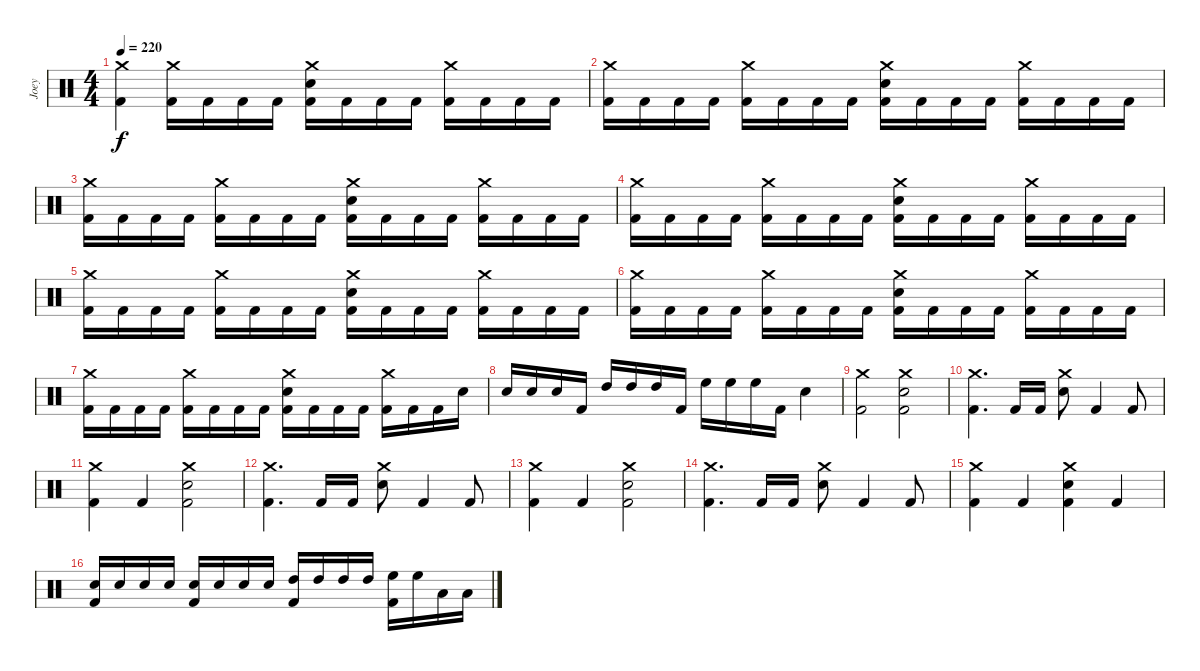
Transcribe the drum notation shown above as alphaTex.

\track ("Joey" "Joey") {instrument percussion}
\staff {score}
\articulation defaults
\ts (4 4)
\tempo 220
\clef neutral
\ks c
("Crash medium (hit)" "Kick (hit) 2").4{dy f} ("Crash medium (hit)" "Kick (hit) 2").16 "Kick (hit) 2".16 "Kick (hit) 2".16 "Kick (hit) 2".16 ("Crash medium (hit)" "Electric Snare (hit)" "Kick (hit) 2").16 "Kick (hit) 2".16 "Kick (hit) 2".16 "Kick (hit) 2".16 ("Crash medium (hit)" "Kick (hit) 2").16 "Kick (hit) 2".16 "Kick (hit) 2".16 "Kick (hit) 2".16 |
("Crash medium (hit)" "Kick (hit) 2").16 "Kick (hit) 2".16 "Kick (hit) 2".16 "Kick (hit) 2".16 ("Crash medium (hit)" "Kick (hit) 2").16 "Kick (hit) 2".16 "Kick (hit) 2".16 "Kick (hit) 2".16 ("Crash medium (hit)" "Electric Snare (hit)" "Kick (hit) 2").16 "Kick (hit) 2".16 "Kick (hit) 2".16 "Kick (hit) 2".16 ("Crash medium (hit)" "Kick (hit) 2").16 "Kick (hit) 2".16 "Kick (hit) 2".16 "Kick (hit) 2".16 |
("Crash medium (hit)" "Kick (hit) 2").16 "Kick (hit) 2".16 "Kick (hit) 2".16 "Kick (hit) 2".16 ("Crash medium (hit)" "Kick (hit) 2").16 "Kick (hit) 2".16 "Kick (hit) 2".16 "Kick (hit) 2".16 ("Crash medium (hit)" "Electric Snare (hit)" "Kick (hit) 2").16 "Kick (hit) 2".16 "Kick (hit) 2".16 "Kick (hit) 2".16 ("Crash medium (hit)" "Kick (hit) 2").16 "Kick (hit) 2".16 "Kick (hit) 2".16 "Kick (hit) 2".16 |
("Crash medium (hit)" "Kick (hit) 2").16 "Kick (hit) 2".16 "Kick (hit) 2".16 "Kick (hit) 2".16 ("Crash medium (hit)" "Kick (hit) 2").16 "Kick (hit) 2".16 "Kick (hit) 2".16 "Kick (hit) 2".16 ("Crash medium (hit)" "Electric Snare (hit)" "Kick (hit) 2").16 "Kick (hit) 2".16 "Kick (hit) 2".16 "Kick (hit) 2".16 ("Crash medium (hit)" "Kick (hit) 2").16 "Kick (hit) 2".16 "Kick (hit) 2".16 "Kick (hit) 2".16 |
("Crash medium (hit)" "Kick (hit) 2").16 "Kick (hit) 2".16 "Kick (hit) 2".16 "Kick (hit) 2".16 ("Crash medium (hit)" "Kick (hit) 2").16 "Kick (hit) 2".16 "Kick (hit) 2".16 "Kick (hit) 2".16 ("Crash medium (hit)" "Electric Snare (hit)" "Kick (hit) 2").16 "Kick (hit) 2".16 "Kick (hit) 2".16 "Kick (hit) 2".16 ("Crash medium (hit)" "Kick (hit) 2").16 "Kick (hit) 2".16 "Kick (hit) 2".16 "Kick (hit) 2".16 |
("Crash medium (hit)" "Kick (hit) 2").16 "Kick (hit) 2".16 "Kick (hit) 2".16 "Kick (hit) 2".16 ("Crash medium (hit)" "Kick (hit) 2").16 "Kick (hit) 2".16 "Kick (hit) 2".16 "Kick (hit) 2".16 ("Crash medium (hit)" "Electric Snare (hit)" "Kick (hit) 2").16 "Kick (hit) 2".16 "Kick (hit) 2".16 "Kick (hit) 2".16 ("Crash medium (hit)" "Kick (hit) 2").16 "Kick (hit) 2".16 "Kick (hit) 2".16 "Kick (hit) 2".16 |
("Crash medium (hit)" "Kick (hit) 2").16 "Kick (hit) 2".16 "Kick (hit) 2".16 "Kick (hit) 2".16 ("Crash medium (hit)" "Kick (hit) 2").16 "Kick (hit) 2".16 "Kick (hit) 2".16 "Kick (hit) 2".16 ("Crash medium (hit)" "Electric Snare (hit)" "Kick (hit) 2").16 "Kick (hit) 2".16 "Kick (hit) 2".16 "Kick (hit) 2".16 ("Crash medium (hit)" "Kick (hit) 2").16 "Kick (hit) 2".16 "Kick (hit) 2".16 "Electric Snare (hit)".16 |
"Electric Snare (hit)".16 "Electric Snare (hit)".16 "Electric Snare (hit)".16 "Kick (hit) 2".16 "High Tom (hit)".16 "High Tom (hit)".16 "High Tom (hit)".16 "Kick (hit) 2".16 "High Floor Tom (hit)".16 "High Floor Tom (hit)".16 "High Floor Tom (hit)".16 "Kick (hit) 2".16 "Electric Snare (hit)".4 |
("Crash medium (hit)" "Kick (hit) 2").2 ("Crash medium (hit)" "Electric Snare (hit)" "Kick (hit) 2").2 |
("Crash medium (hit)" "Kick (hit) 2").4{d} "Kick (hit) 2".16 "Kick (hit) 2".16 ("Crash medium (hit)" "Electric Snare (hit)").8 "Kick (hit) 2".4 "Kick (hit) 2".8 |
("Crash medium (hit)" "Kick (hit) 2").4 "Kick (hit) 2".4 ("Crash medium (hit)" "Electric Snare (hit)" "Kick (hit) 2").2 |
("Crash medium (hit)" "Kick (hit) 2").4{d} "Kick (hit) 2".16 "Kick (hit) 2".16 ("Crash medium (hit)" "Electric Snare (hit)").8 "Kick (hit) 2".4 "Kick (hit) 2".8 |
("Crash medium (hit)" "Kick (hit) 2").4 "Kick (hit) 2".4 ("Crash medium (hit)" "Electric Snare (hit)" "Kick (hit) 2").2 |
("Crash medium (hit)" "Kick (hit) 2").4{d} "Kick (hit) 2".16 "Kick (hit) 2".16 ("Crash medium (hit)" "Electric Snare (hit)").8 "Kick (hit) 2".4 "Kick (hit) 2".8 |
("Crash medium (hit)" "Kick (hit) 2").4 "Kick (hit) 2".4 ("Crash medium (hit)" "Electric Snare (hit)" "Kick (hit) 2").4 "Kick (hit) 2".4 |
("Electric Snare (hit)" "Kick (hit) 2").16 "Electric Snare (hit)".16 "Electric Snare (hit)".16 "Electric Snare (hit)".16 ("Electric Snare (hit)" "Kick (hit) 2").16 "Electric Snare (hit)".16 "Electric Snare (hit)".16 "Electric Snare (hit)".16 ("High Tom (hit)" "Kick (hit) 2").16 "High Tom (hit)".16 "High Tom (hit)".16 "High Tom (hit)".16 ("High Floor Tom (hit)" "Kick (hit) 2").16 "High Floor Tom (hit)".16 "Low Floor Tom (hit)".16 "Low Floor Tom (hit)".16
